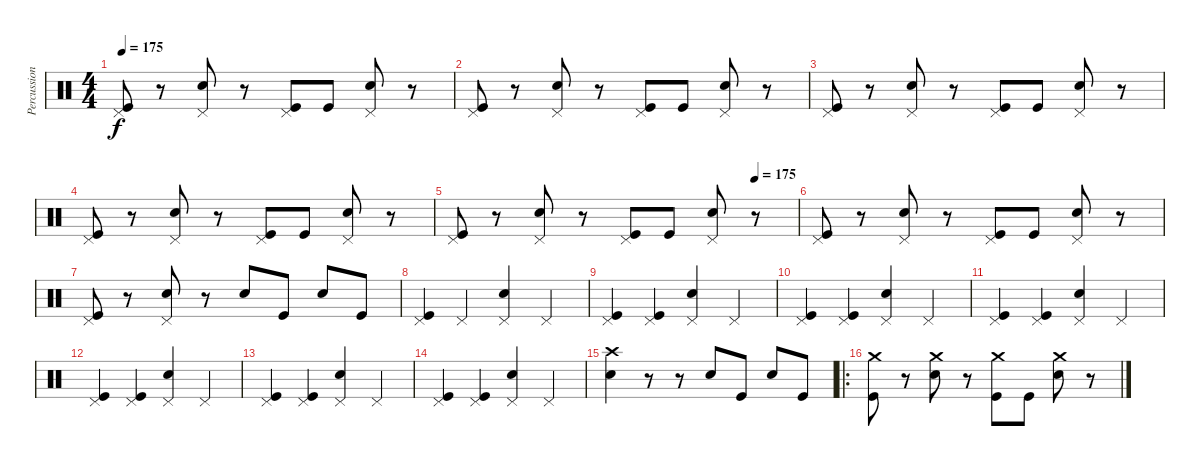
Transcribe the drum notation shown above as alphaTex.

\track ("Percussion" "Percussion") {instrument percussion}
\staff {score}
\articulation defaults
\ts (4 4)
\tempo 175
\clef neutral
\ks c
("Pedal Hi-Hat (hit)" "Kick (hit)").8{dy f} r.8 ("Pedal Hi-Hat (hit)" "Electric Snare (hit)").8 r.8 ("Pedal Hi-Hat (hit)" "Kick (hit)").8 "Kick (hit)".8 ("Pedal Hi-Hat (hit)" "Electric Snare (hit)").8 r.8 |
("Pedal Hi-Hat (hit)" "Kick (hit)").8 r.8 ("Pedal Hi-Hat (hit)" "Electric Snare (hit)").8 r.8 ("Pedal Hi-Hat (hit)" "Kick (hit)").8 "Kick (hit)".8 ("Pedal Hi-Hat (hit)" "Electric Snare (hit)").8 r.8 |
("Pedal Hi-Hat (hit)" "Kick (hit)").8 r.8 ("Pedal Hi-Hat (hit)" "Electric Snare (hit)").8 r.8 ("Pedal Hi-Hat (hit)" "Kick (hit)").8 "Kick (hit)".8 ("Pedal Hi-Hat (hit)" "Electric Snare (hit)").8 r.8 |
("Pedal Hi-Hat (hit)" "Kick (hit)").8 r.8 ("Pedal Hi-Hat (hit)" "Electric Snare (hit)").8 r.8 ("Pedal Hi-Hat (hit)" "Kick (hit)").8 "Kick (hit)".8 ("Pedal Hi-Hat (hit)" "Electric Snare (hit)").8 r.8 |
\tempo (175 0.875)
("Pedal Hi-Hat (hit)" "Kick (hit)").8 r.8 ("Pedal Hi-Hat (hit)" "Electric Snare (hit)").8 r.8 ("Pedal Hi-Hat (hit)" "Kick (hit)").8 "Kick (hit)".8 ("Pedal Hi-Hat (hit)" "Electric Snare (hit)").8 r.8 |
("Pedal Hi-Hat (hit)" "Kick (hit)").8 r.8 ("Pedal Hi-Hat (hit)" "Electric Snare (hit)").8 r.8 ("Pedal Hi-Hat (hit)" "Kick (hit)").8 "Kick (hit)".8 ("Pedal Hi-Hat (hit)" "Electric Snare (hit)").8 r.8 |
("Pedal Hi-Hat (hit)" "Kick (hit)").8 r.8 ("Pedal Hi-Hat (hit)" "Electric Snare (hit)").8 r.8 "Electric Snare (hit)".8 "Kick (hit)".8 "Electric Snare (hit)".8 "Kick (hit)".8 |
("Pedal Hi-Hat (hit)" "Kick (hit)").4 "Pedal Hi-Hat (hit)".4 ("Pedal Hi-Hat (hit)" "Electric Snare (hit)").4 "Pedal Hi-Hat (hit)".4 |
("Pedal Hi-Hat (hit)" "Kick (hit)").4 ("Pedal Hi-Hat (hit)" "Kick (hit)").4 ("Pedal Hi-Hat (hit)" "Electric Snare (hit)").4 "Pedal Hi-Hat (hit)".4 |
("Pedal Hi-Hat (hit)" "Kick (hit)").4 ("Pedal Hi-Hat (hit)" "Kick (hit)").4 ("Pedal Hi-Hat (hit)" "Electric Snare (hit)").4 "Pedal Hi-Hat (hit)".4 |
("Pedal Hi-Hat (hit)" "Kick (hit)").4 ("Pedal Hi-Hat (hit)" "Kick (hit)").4 ("Pedal Hi-Hat (hit)" "Electric Snare (hit)").4 "Pedal Hi-Hat (hit)".4 |
("Pedal Hi-Hat (hit)" "Kick (hit)").4 ("Pedal Hi-Hat (hit)" "Kick (hit)").4 ("Pedal Hi-Hat (hit)" "Electric Snare (hit)").4 "Pedal Hi-Hat (hit)".4 |
("Pedal Hi-Hat (hit)" "Kick (hit)").4 ("Pedal Hi-Hat (hit)" "Kick (hit)").4 ("Pedal Hi-Hat (hit)" "Electric Snare (hit)").4 "Pedal Hi-Hat (hit)".4 |
("Pedal Hi-Hat (hit)" "Kick (hit)").4 ("Pedal Hi-Hat (hit)" "Kick (hit)").4 ("Pedal Hi-Hat (hit)" "Electric Snare (hit)").4 "Pedal Hi-Hat (hit)".4 |
("Crash high (hit)" "Electric Snare (hit)").4 r.8 r.8 "Electric Snare (hit)".8 "Kick (hit)".8 "Electric Snare (hit)".8 "Kick (hit)".8 |
\ro
("Crash medium (hit)" "Kick (hit)").8 r.8 ("Crash medium (hit)" "Electric Snare (hit)").8 r.8 ("Crash medium (hit)" "Kick (hit)").8 "Kick (hit)".8 ("Crash medium (hit)" "Electric Snare (hit)").8 r.8
